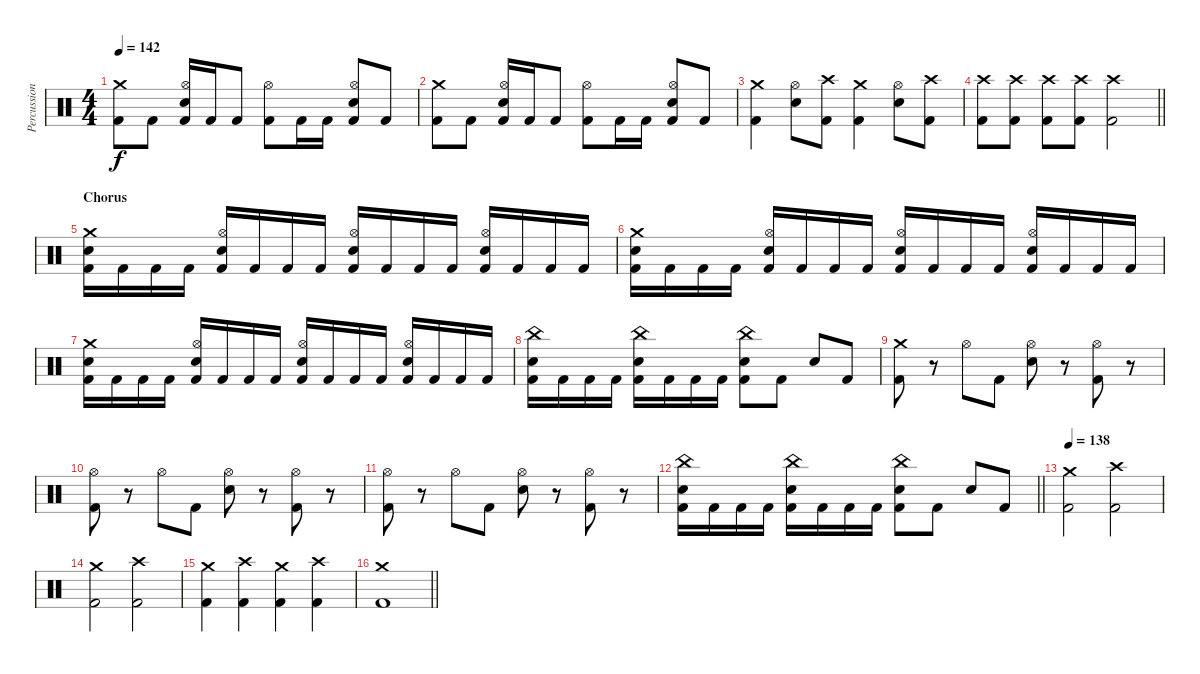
\track ("Percussion" "Percussion") {instrument percussion}
\staff {score}
\articulation defaults
\ts (4 4)
\tempo 142
\clef neutral
\ks c
("Crash medium (hit)" "Kick (hit) 2").8{dy f} "Kick (hit) 2".8 ("Hi-Hat (open)" "Snare (hit) 2" "Kick (hit) 2").16 "Kick (hit) 2".16 "Kick (hit) 2".8 ("Hi-Hat (open)" "Kick (hit) 2").8 "Kick (hit) 2".16 "Kick (hit) 2".16 ("Hi-Hat (open)" "Snare (hit) 2" "Kick (hit) 2").8 "Kick (hit) 2".8 |
("Crash medium (hit)" "Kick (hit) 2").8 "Kick (hit) 2".8 ("Hi-Hat (open)" "Snare (hit) 2" "Kick (hit) 2").16 "Kick (hit) 2".16 "Kick (hit) 2".8 ("Hi-Hat (open)" "Kick (hit) 2").8 "Kick (hit) 2".16 "Kick (hit) 2".16 ("Hi-Hat (open)" "Snare (hit) 2" "Kick (hit) 2").8 "Kick (hit) 2".8 |
("Crash medium (hit)" "Kick (hit) 2").4 ("Hi-Hat (open)" "Snare (hit) 2").8 ("Crash high (hit)" "Kick (hit) 2").8 ("Crash medium (hit)" "Kick (hit) 2").4 ("Hi-Hat (open)" "Snare (hit) 2").8 ("Crash high (hit)" "Kick (hit) 2").8 |
\barLineRight lightlight
("Crash high (hit)" "Kick (hit) 2").8 ("Crash high (hit)" "Kick (hit) 2").8 ("Crash high (hit)" "Kick (hit) 2").8 ("Crash high (hit)" "Kick (hit) 2").8 ("Crash high (hit)" "Kick (hit) 2").2 |
\section ("" "Chorus")
("Crash medium (hit)" "Snare (hit) 2" "Kick (hit) 2").16 "Kick (hit) 2".16 "Kick (hit) 2".16 "Kick (hit) 2".16 ("Hi-Hat (open)" "Snare (hit) 2" "Kick (hit) 2").16 "Kick (hit) 2".16 "Kick (hit) 2".16 "Kick (hit) 2".16 ("Hi-Hat (open)" "Snare (hit) 2" "Kick (hit) 2").16 "Kick (hit) 2".16 "Kick (hit) 2".16 "Kick (hit) 2".16 ("Hi-Hat (open)" "Snare (hit) 2" "Kick (hit) 2").16 "Kick (hit) 2".16 "Kick (hit) 2".16 "Kick (hit) 2".16 |
("Crash medium (hit)" "Snare (hit) 2" "Kick (hit) 2").16 "Kick (hit) 2".16 "Kick (hit) 2".16 "Kick (hit) 2".16 ("Hi-Hat (open)" "Snare (hit) 2" "Kick (hit) 2").16 "Kick (hit) 2".16 "Kick (hit) 2".16 "Kick (hit) 2".16 ("Hi-Hat (open)" "Snare (hit) 2" "Kick (hit) 2").16 "Kick (hit) 2".16 "Kick (hit) 2".16 "Kick (hit) 2".16 ("Hi-Hat (open)" "Snare (hit) 2" "Kick (hit) 2").16 "Kick (hit) 2".16 "Kick (hit) 2".16 "Kick (hit) 2".16 |
("Crash medium (hit)" "Snare (hit) 2" "Kick (hit) 2").16 "Kick (hit) 2".16 "Kick (hit) 2".16 "Kick (hit) 2".16 ("Hi-Hat (open)" "Snare (hit) 2" "Kick (hit) 2").16 "Kick (hit) 2".16 "Kick (hit) 2".16 "Kick (hit) 2".16 ("Hi-Hat (open)" "Snare (hit) 2" "Kick (hit) 2").16 "Kick (hit) 2".16 "Kick (hit) 2".16 "Kick (hit) 2".16 ("Hi-Hat (open)" "Snare (hit) 2" "Kick (hit) 2").16 "Kick (hit) 2".16 "Kick (hit) 2".16 "Kick (hit) 2".16 |
("China (hit)" "Snare (hit) 2" "Kick (hit) 2").16 "Kick (hit) 2".16 "Kick (hit) 2".16 "Kick (hit) 2".16 ("China (hit)" "Snare (hit) 2" "Kick (hit) 2").16 "Kick (hit) 2".16 "Kick (hit) 2".16 "Kick (hit) 2".16 ("China (hit)" "Snare (hit) 2" "Kick (hit) 2").8 "Kick (hit) 2".8 "Snare (hit) 2".8 "Kick (hit) 2".8 |
("Crash medium (hit)" "Kick (hit) 2").8 r.8 "Hi-Hat (open)".8 "Kick (hit) 2".8 ("Hi-Hat (open)" "Snare (hit) 2").8 r.8 ("Hi-Hat (open)" "Kick (hit) 2").8 r.8 |
("Hi-Hat (open)" "Kick (hit) 2").8 r.8 "Hi-Hat (open)".8 "Kick (hit) 2".8 ("Hi-Hat (open)" "Snare (hit) 2").8 r.8 ("Hi-Hat (open)" "Kick (hit) 2").8 r.8 |
("Hi-Hat (open)" "Kick (hit) 2").8 r.8 "Hi-Hat (open)".8 "Kick (hit) 2".8 ("Hi-Hat (open)" "Snare (hit) 2").8 r.8 ("Hi-Hat (open)" "Kick (hit) 2").8 r.8 |
\barLineRight lightlight
("China (hit)" "Snare (hit) 2" "Kick (hit) 2").16 "Kick (hit) 2".16 "Kick (hit) 2".16 "Kick (hit) 2".16 ("China (hit)" "Snare (hit) 2" "Kick (hit) 2").16 "Kick (hit) 2".16 "Kick (hit) 2".16 "Kick (hit) 2".16 ("China (hit)" "Snare (hit) 2" "Kick (hit) 2").8 "Kick (hit) 2".8 "Snare (hit) 2".8 "Kick (hit) 2".8 |
\section ("" "")
\tempo 138
("Crash medium (hit)" "Kick (hit) 2").2 ("Crash high (hit)" "Kick (hit) 2").2 |
("Crash medium (hit)" "Kick (hit) 2").2 ("Crash high (hit)" "Kick (hit) 2").2 |
("Crash medium (hit)" "Kick (hit) 2").4 ("Crash high (hit)" "Kick (hit) 2").4 ("Crash medium (hit)" "Kick (hit) 2").4 ("Crash high (hit)" "Kick (hit) 2").4 |
\barLineRight lightlight
("Crash medium (hit)" "Kick (hit) 2").1
